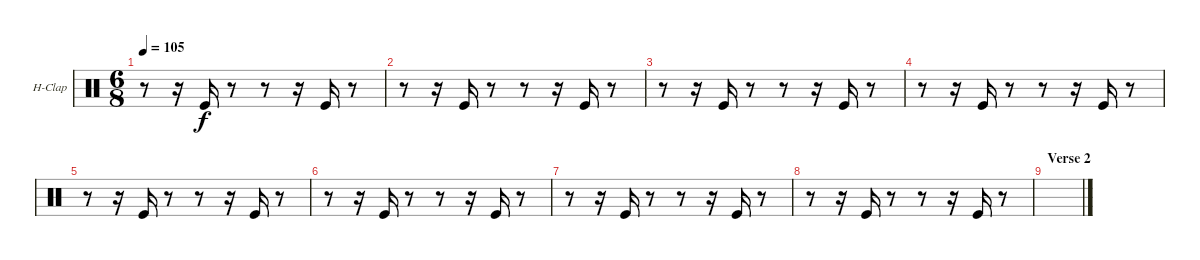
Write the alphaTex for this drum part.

\defaultSystemsLayout 4
\bracketExtendMode nobrackets
\firstSystemTrackNameOrientation horizontal
\otherSystemsTrackNameOrientation horizontal
\track ("Hand Clap" "H-Clap") {instrument percussion}
\staff {score}
\articulation defaults
\ts (6 8)
\tempo 105
\clef neutral
\ks c
r.8{dy f} r.16 "Kick (hit)".16 r.8 r.8 r.16 "Kick (hit)".16 r.8 |
r.8 r.16 "Kick (hit)".16 r.8 r.8 r.16 "Kick (hit)".16 r.8 |
r.8 r.16 "Kick (hit)".16 r.8 r.8 r.16 "Kick (hit)".16 r.8 |
r.8 r.16 "Kick (hit)".16 r.8 r.8 r.16 "Kick (hit)".16 r.8 |
r.8 r.16 "Kick (hit)".16 r.8 r.8 r.16 "Kick (hit)".16 r.8 |
r.8 r.16 "Kick (hit)".16 r.8 r.8 r.16 "Kick (hit)".16 r.8 |
r.8 r.16 "Kick (hit)".16 r.8 r.8 r.16 "Kick (hit)".16 r.8 |
r.8 r.16 "Kick (hit)".16 r.8 r.8 r.16 "Kick (hit)".16 r.8 |
\section ("" "Verse 2")
